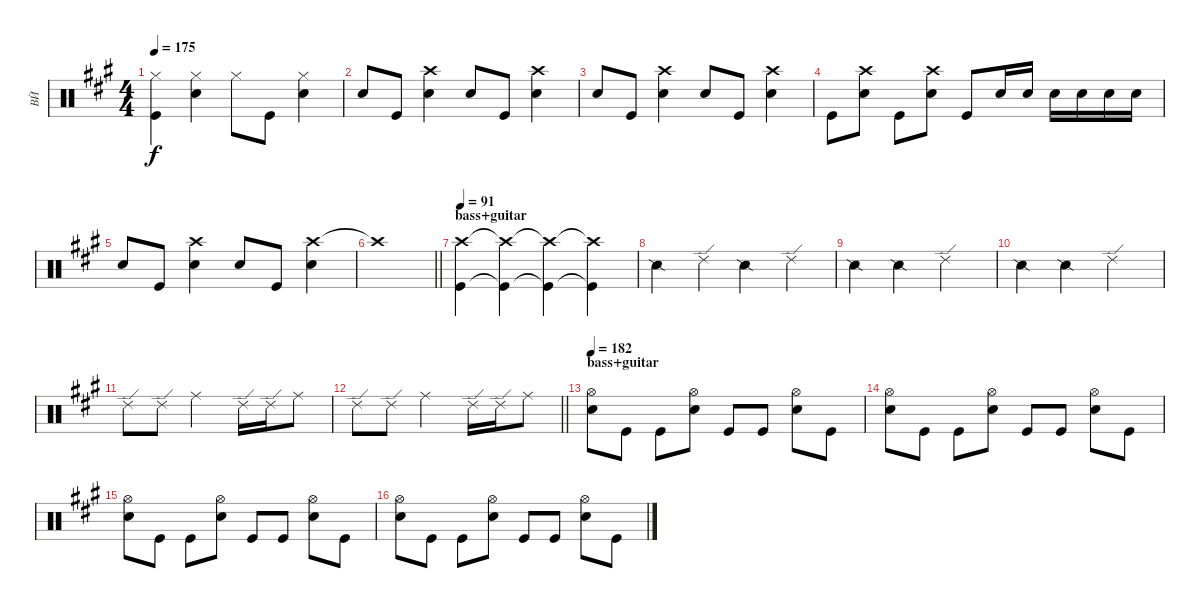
\track ("ВЙ" "ВЙ") {instrument percussion}
\staff {score}
\articulation defaults
\ts (4 4)
\tempo 175
\clef neutral
\ks a
("Hi-Hat (closed)" "Kick (hit)").4{dy f} ("Hi-Hat (closed)" "Electric Snare (hit)").4 "Hi-Hat (closed)".8 "Kick (hit)".8 ("Hi-Hat (closed)" "Electric Snare (hit)").4 |
"Electric Snare (hit)".8 "Kick (hit)".8 ("Crash high (hit)" "Electric Snare (hit)").4 "Electric Snare (hit)".8 "Kick (hit)".8 ("Crash high (hit)" "Electric Snare (hit)").4 |
"Electric Snare (hit)".8 "Kick (hit)".8 ("Crash high (hit)" "Electric Snare (hit)").4 "Electric Snare (hit)".8 "Kick (hit)".8 ("Crash high (hit)" "Electric Snare (hit)").4 |
"Kick (hit)".8 ("Crash high (hit)" "Electric Snare (hit)").8 "Kick (hit)".8 ("Crash high (hit)" "Electric Snare (hit)").8 "Kick (hit)".8 "Electric Snare (hit)".16 "Electric Snare (hit)".16 "Electric Snare (hit)".16 "Electric Snare (hit)".16 "Electric Snare (hit)".16 "Electric Snare (hit)".16 |
"Electric Snare (hit)".8 "Kick (hit)".8 ("Crash high (hit)" "Electric Snare (hit)").4 "Electric Snare (hit)".8 "Kick (hit)".8 ("Crash high (hit)" "Electric Snare (hit)").4 |
\barLineRight lightlight "Crash high (hit)"{t}.1
|
\section ("" "bass+guitar")
\tempo 91
("Crash high (hit)" "Kick (hit)").4 ("Crash high (hit)"{t} "Kick (hit)"{t}).4 ("Crash high (hit)"{t} "Kick (hit)"{t}).4 ("Crash high (hit)"{t} "Kick (hit)"{t}).4 |
"Snare (side stick) 2".4 "Ride (edge) 2".4 "Snare (side stick) 2".4 "Ride (edge) 2".4 |
"Snare (side stick) 2".4 "Snare (side stick) 2".4 "Ride (edge) 2".2 |
"Snare (side stick) 2".4 "Snare (side stick) 2".4 "Ride (edge) 2".2 |
"Ride (edge) 2".8 "Ride (edge) 2".8 "Ride (middle)".2 "Ride (edge) 2".16 "Ride (edge) 2".16 "Ride (middle)".8 |
\barLineRight lightlight "Ride (edge) 2".8 "Ride (edge) 2".8 "Ride (middle)".2 "Ride (edge) 2".16 "Ride (edge) 2".16 "Ride (middle)".8
|
\section ("" "bass+guitar")
\tempo 182
("Hi-Hat (open)" "Electric Snare (hit)").8 "Kick (hit)".8 "Kick (hit)".8 ("Hi-Hat (open)" "Electric Snare (hit)").8 "Kick (hit)".8 "Kick (hit)".8 ("Hi-Hat (open)" "Electric Snare (hit)").8 "Kick (hit)".8 |
("Hi-Hat (open)" "Electric Snare (hit)").8 "Kick (hit)".8 "Kick (hit)".8 ("Hi-Hat (open)" "Electric Snare (hit)").8 "Kick (hit)".8 "Kick (hit)".8 ("Hi-Hat (open)" "Electric Snare (hit)").8 "Kick (hit)".8 |
("Hi-Hat (open)" "Electric Snare (hit)").8 "Kick (hit)".8 "Kick (hit)".8 ("Hi-Hat (open)" "Electric Snare (hit)").8 "Kick (hit)".8 "Kick (hit)".8 ("Hi-Hat (open)" "Electric Snare (hit)").8 "Kick (hit)".8 |
("Hi-Hat (open)" "Electric Snare (hit)").8 "Kick (hit)".8 "Kick (hit)".8 ("Hi-Hat (open)" "Electric Snare (hit)").8 "Kick (hit)".8 "Kick (hit)".8 ("Hi-Hat (open)" "Electric Snare (hit)").8 "Kick (hit)".8
